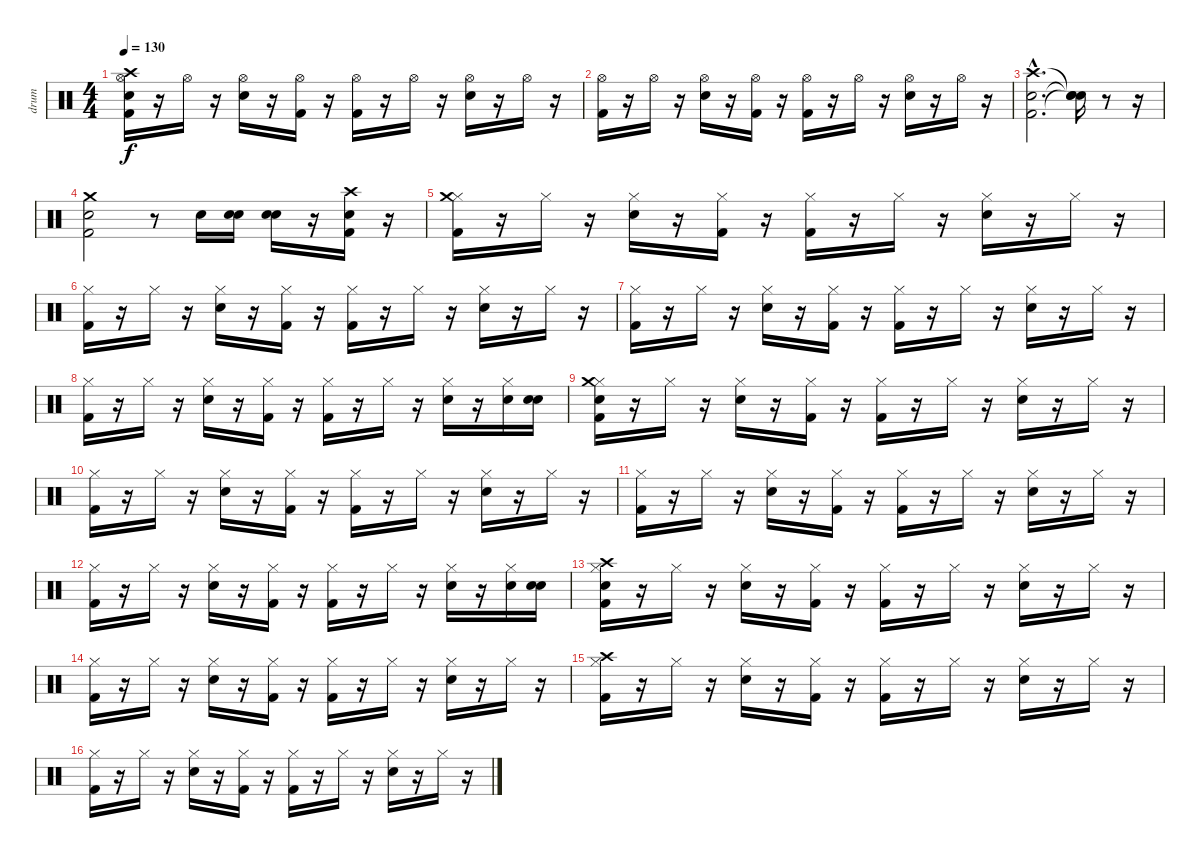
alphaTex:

\track ("drum" "drum") {instrument percussion}
\staff {score}
\articulation defaults
\ts (4 4)
\tempo 130
\clef neutral
\ks c
("Snare (hit)" "Kick (hit) 2" "Hi-Hat (open)" "Crash high (hit)").16{dy f} r.16 "Hi-Hat (open)".16 r.16 ("Hi-Hat (open)" "Snare (hit) 2").16 r.16 ("Hi-Hat (open)" "Kick (hit) 2").16 r.16 ("Hi-Hat (open)" "Kick (hit) 2").16 r.16 "Hi-Hat (open)".16 r.16 ("Snare (hit) 2" "Hi-Hat (open)").16 r.16 "Hi-Hat (open)".16 r.16 |
("Kick (hit) 2" "Hi-Hat (open)").16 r.16 "Hi-Hat (open)".16 r.16 ("Snare (hit) 2" "Hi-Hat (open)").16 r.16 ("Hi-Hat (open)" "Kick (hit) 2").16 r.16 ("Kick (hit) 2" "Hi-Hat (open)").16 r.16 "Hi-Hat (open)".16 r.16 ("Hi-Hat (open)" "Snare (hit) 2").16 r.16 "Hi-Hat (open)".16 r.16 |
("Crash high (hit)"{hac} "Snare (hit) 2"{hac} "Kick (hit) 2"{hac}).2{d} ("Snare (hit)"{t} "Snare (hit)"{t} "Snare (hit)"{t}).16 r.8 r.16 |
("Snare (hit) 2" "Crash medium (hit)" "Kick (hit) 2").2 r.8 "Snare (hit) 2".16 ("Snare (hit)" "Snare (hit) 2").16 ("Snare (hit)" "Snare (hit) 2").16 r.16 ("Kick (hit) 2" "Snare (hit) 2" "Crash high (hit)").16 r.16 |
("Kick (hit) 2" "Hi-Hat (closed)" "Crash medium (hit)").16 r.16 "Hi-Hat (closed)".16 r.16 ("Hi-Hat (closed)" "Snare (hit) 2").16 r.16 ("Hi-Hat (closed)" "Kick (hit) 2").16 r.16 ("Kick (hit) 2" "Hi-Hat (closed)").16 r.16 "Hi-Hat (closed)".16 r.16 ("Hi-Hat (closed)" "Snare (hit) 2").16 r.16 "Hi-Hat (closed)".16 r.16 |
("Hi-Hat (closed)" "Kick (hit) 2").16 r.16 "Hi-Hat (closed)".16 r.16 ("Snare (hit) 2" "Hi-Hat (closed)").16 r.16 ("Kick (hit) 2" "Hi-Hat (closed)").16 r.16 ("Kick (hit) 2" "Hi-Hat (closed)").16 r.16 "Hi-Hat (closed)".16 r.16 ("Hi-Hat (closed)" "Snare (hit) 2").16 r.16 "Hi-Hat (closed)".16 r.16 |
("Hi-Hat (closed)" "Kick (hit) 2").16 r.16 "Hi-Hat (closed)".16 r.16 ("Snare (hit) 2" "Hi-Hat (closed)").16 r.16 ("Kick (hit) 2" "Hi-Hat (closed)").16 r.16 ("Kick (hit) 2" "Hi-Hat (closed)").16 r.16 "Hi-Hat (closed)".16 r.16 ("Snare (hit) 2" "Hi-Hat (closed)").16 r.16 "Hi-Hat (closed)".16 r.16 |
("Hi-Hat (closed)" "Kick (hit) 2").16 r.16 "Hi-Hat (closed)".16 r.16 ("Hi-Hat (closed)" "Snare (hit) 2").16 r.16 ("Hi-Hat (closed)" "Kick (hit) 2").16 r.16 ("Kick (hit) 2" "Hi-Hat (closed)").16 r.16 "Hi-Hat (closed)".16 r.16 ("Snare (hit) 2" "Hi-Hat (closed)").16 r.16 ("Snare (hit) 2" "Hi-Hat (closed)").16 ("Snare (hit)" "Snare (hit) 2").16 |
("Snare (hit)" "Hi-Hat (closed)" "Crash medium (hit)" "Kick (hit) 2").16 r.16 "Hi-Hat (closed)".16 r.16 ("Snare (hit) 2" "Hi-Hat (closed)").16 r.16 ("Hi-Hat (closed)" "Kick (hit) 2").16 r.16 ("Hi-Hat (closed)" "Kick (hit) 2").16 r.16 "Hi-Hat (closed)".16 r.16 ("Snare (hit) 2" "Hi-Hat (closed)").16 r.16 "Hi-Hat (closed)".16 r.16 |
("Kick (hit) 2" "Hi-Hat (closed)").16 r.16 "Hi-Hat (closed)".16 r.16 ("Snare (hit) 2" "Hi-Hat (closed)").16 r.16 ("Kick (hit) 2" "Hi-Hat (closed)").16 r.16 ("Kick (hit) 2" "Hi-Hat (closed)").16 r.16 "Hi-Hat (closed)".16 r.16 ("Snare (hit) 2" "Hi-Hat (closed)").16 r.16 "Hi-Hat (closed)".16 r.16 |
("Kick (hit) 2" "Hi-Hat (closed)").16 r.16 "Hi-Hat (closed)".16 r.16 ("Hi-Hat (closed)" "Snare (hit) 2").16 r.16 ("Hi-Hat (closed)" "Kick (hit) 2").16 r.16 ("Kick (hit) 2" "Hi-Hat (closed)").16 r.16 "Hi-Hat (closed)".16 r.16 ("Snare (hit) 2" "Hi-Hat (closed)").16 r.16 "Hi-Hat (closed)".16 r.16 |
("Kick (hit) 2" "Hi-Hat (closed)").16 r.16 "Hi-Hat (closed)".16 r.16 ("Hi-Hat (closed)" "Snare (hit) 2").16 r.16 ("Kick (hit) 2" "Hi-Hat (closed)").16 r.16 ("Kick (hit) 2" "Hi-Hat (closed)").16 r.16 "Hi-Hat (closed)".16 r.16 ("Hi-Hat (closed)" "Snare (hit) 2").16 r.16 ("Hi-Hat (closed)" "Snare (hit) 2").16 ("Snare (hit)" "Snare (hit) 2").16 |
("Snare (hit)" "Crash high (hit)" "Kick (hit) 2" "Hi-Hat (closed)").16 r.16 "Hi-Hat (closed)".16 r.16 ("Snare (hit) 2" "Hi-Hat (closed)").16 r.16 ("Kick (hit) 2" "Hi-Hat (closed)").16 r.16 ("Hi-Hat (closed)" "Kick (hit) 2").16 r.16 "Hi-Hat (closed)".16 r.16 ("Hi-Hat (closed)" "Snare (hit) 2").16 r.16 "Hi-Hat (closed)".16 r.16 |
("Kick (hit) 2" "Hi-Hat (closed)").16 r.16 "Hi-Hat (closed)".16 r.16 ("Hi-Hat (closed)" "Snare (hit) 2").16 r.16 ("Kick (hit) 2" "Hi-Hat (closed)").16 r.16 ("Hi-Hat (closed)" "Kick (hit) 2").16 r.16 "Hi-Hat (closed)".16 r.16 ("Hi-Hat (closed)" "Snare (hit) 2").16 r.16 "Hi-Hat (closed)".16 r.16 |
("Hi-Hat (closed)" "Crash high (hit)" "Kick (hit) 2").16 r.16 "Hi-Hat (closed)".16 r.16 ("Snare (hit) 2" "Hi-Hat (closed)").16 r.16 ("Hi-Hat (closed)" "Kick (hit) 2").16 r.16 ("Kick (hit) 2" "Hi-Hat (closed)").16 r.16 "Hi-Hat (closed)".16 r.16 ("Hi-Hat (closed)" "Snare (hit) 2").16 r.16 "Hi-Hat (closed)".16 r.16 |
("Hi-Hat (closed)" "Kick (hit) 2").16 r.16 "Hi-Hat (closed)".16 r.16 ("Hi-Hat (closed)" "Snare (hit) 2").16 r.16 ("Kick (hit) 2" "Hi-Hat (closed)").16 r.16 ("Kick (hit) 2" "Hi-Hat (closed)").16 r.16 "Hi-Hat (closed)".16 r.16 ("Hi-Hat (closed)" "Snare (hit) 2").16 r.16 "Hi-Hat (closed)".16 r.16
